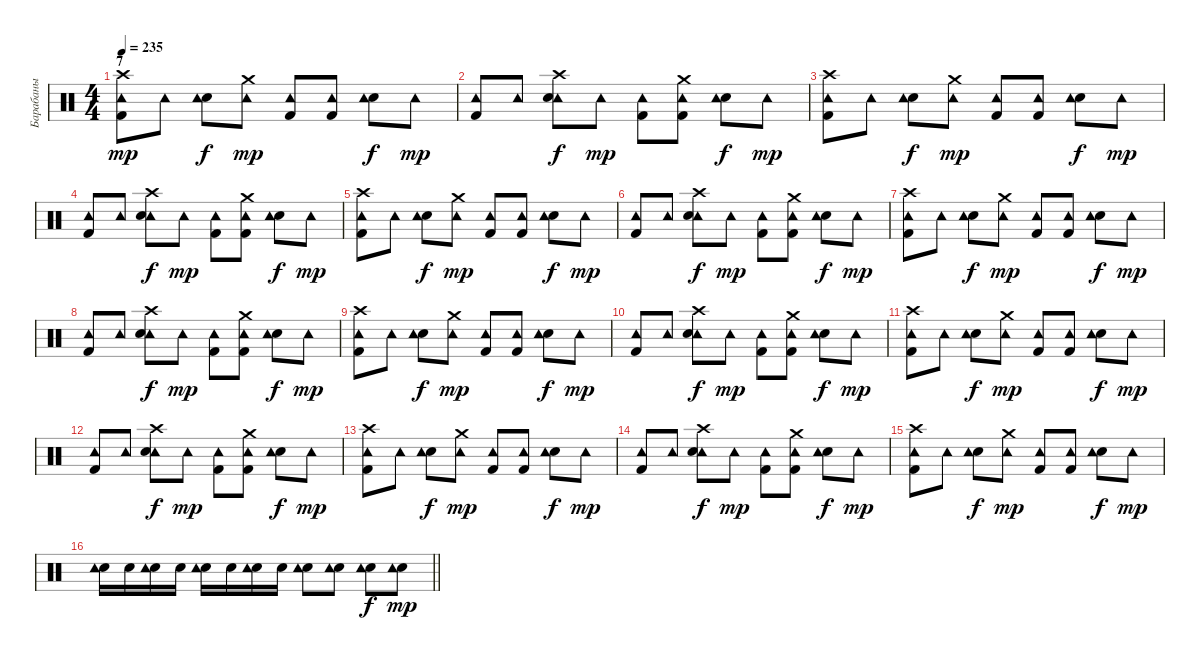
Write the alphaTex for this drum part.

\track ("Барабаны" "Барабаны") {instrument percussion}
\staff {score}
\articulation defaults
\ts (4 4)
\section ("" "7")
\tempo 235
\clef neutral
\ks c
("Crash high (hit)" "Kick (hit) 2" "Tambourine (hit)").8{dy mp} "Tambourine (hit)".8 ("Electric Snare (hit)" "Tambourine (hit)").8{dy f} ("Crash medium (hit)" "Tambourine (hit)").8{dy mp} ("Kick (hit) 2" "Tambourine (hit)").8 ("Kick (hit) 2" "Tambourine (hit)").8 ("Electric Snare (hit)" "Tambourine (hit)").8{dy f} "Tambourine (hit)".8{dy mp} |
("Kick (hit) 2" "Tambourine (hit)").8 "Tambourine (hit)".8 ("Tambourine (hit)" "Electric Snare (hit)" "Crash high (hit)").8{dy f} "Tambourine (hit)".8{dy mp} ("Kick (hit) 2" "Tambourine (hit)").8 ("Tambourine (hit)" "Kick (hit) 2" "Crash medium (hit)").8 ("Electric Snare (hit)" "Tambourine (hit)").8{dy f} "Tambourine (hit)".8{dy mp} |
("Crash high (hit)" "Kick (hit) 2" "Tambourine (hit)").8 "Tambourine (hit)".8 ("Electric Snare (hit)" "Tambourine (hit)").8{dy f} ("Crash medium (hit)" "Tambourine (hit)").8{dy mp} ("Kick (hit) 2" "Tambourine (hit)").8 ("Kick (hit) 2" "Tambourine (hit)").8 ("Electric Snare (hit)" "Tambourine (hit)").8{dy f} "Tambourine (hit)".8{dy mp} |
("Kick (hit) 2" "Tambourine (hit)").8 "Tambourine (hit)".8 ("Tambourine (hit)" "Electric Snare (hit)" "Crash high (hit)").8{dy f} "Tambourine (hit)".8{dy mp} ("Kick (hit) 2" "Tambourine (hit)").8 ("Tambourine (hit)" "Kick (hit) 2" "Crash medium (hit)").8 ("Electric Snare (hit)" "Tambourine (hit)").8{dy f} "Tambourine (hit)".8{dy mp} |
("Crash high (hit)" "Kick (hit) 2" "Tambourine (hit)").8 "Tambourine (hit)".8 ("Electric Snare (hit)" "Tambourine (hit)").8{dy f} ("Crash medium (hit)" "Tambourine (hit)").8{dy mp} ("Kick (hit) 2" "Tambourine (hit)").8 ("Kick (hit) 2" "Tambourine (hit)").8 ("Electric Snare (hit)" "Tambourine (hit)").8{dy f} "Tambourine (hit)".8{dy mp} |
("Kick (hit) 2" "Tambourine (hit)").8 "Tambourine (hit)".8 ("Tambourine (hit)" "Electric Snare (hit)" "Crash high (hit)").8{dy f} "Tambourine (hit)".8{dy mp} ("Kick (hit) 2" "Tambourine (hit)").8 ("Tambourine (hit)" "Kick (hit) 2" "Crash medium (hit)").8 ("Electric Snare (hit)" "Tambourine (hit)").8{dy f} "Tambourine (hit)".8{dy mp} |
("Crash high (hit)" "Kick (hit) 2" "Tambourine (hit)").8 "Tambourine (hit)".8 ("Electric Snare (hit)" "Tambourine (hit)").8{dy f} ("Crash medium (hit)" "Tambourine (hit)").8{dy mp} ("Kick (hit) 2" "Tambourine (hit)").8 ("Kick (hit) 2" "Tambourine (hit)").8 ("Electric Snare (hit)" "Tambourine (hit)").8{dy f} "Tambourine (hit)".8{dy mp} |
("Kick (hit) 2" "Tambourine (hit)").8 "Tambourine (hit)".8 ("Tambourine (hit)" "Electric Snare (hit)" "Crash high (hit)").8{dy f} "Tambourine (hit)".8{dy mp} ("Kick (hit) 2" "Tambourine (hit)").8 ("Tambourine (hit)" "Kick (hit) 2" "Crash medium (hit)").8 ("Electric Snare (hit)" "Tambourine (hit)").8{dy f} "Tambourine (hit)".8{dy mp} |
("Crash high (hit)" "Kick (hit) 2" "Tambourine (hit)").8 "Tambourine (hit)".8 ("Electric Snare (hit)" "Tambourine (hit)").8{dy f} ("Crash medium (hit)" "Tambourine (hit)").8{dy mp} ("Kick (hit) 2" "Tambourine (hit)").8 ("Kick (hit) 2" "Tambourine (hit)").8 ("Electric Snare (hit)" "Tambourine (hit)").8{dy f} "Tambourine (hit)".8{dy mp} |
("Kick (hit) 2" "Tambourine (hit)").8 "Tambourine (hit)".8 ("Tambourine (hit)" "Electric Snare (hit)" "Crash high (hit)").8{dy f} "Tambourine (hit)".8{dy mp} ("Kick (hit) 2" "Tambourine (hit)").8 ("Tambourine (hit)" "Kick (hit) 2" "Crash medium (hit)").8 ("Electric Snare (hit)" "Tambourine (hit)").8{dy f} "Tambourine (hit)".8{dy mp} |
("Crash high (hit)" "Kick (hit) 2" "Tambourine (hit)").8 "Tambourine (hit)".8 ("Electric Snare (hit)" "Tambourine (hit)").8{dy f} ("Crash medium (hit)" "Tambourine (hit)").8{dy mp} ("Kick (hit) 2" "Tambourine (hit)").8 ("Kick (hit) 2" "Tambourine (hit)").8 ("Electric Snare (hit)" "Tambourine (hit)").8{dy f} "Tambourine (hit)".8{dy mp} |
("Kick (hit) 2" "Tambourine (hit)").8 "Tambourine (hit)".8 ("Tambourine (hit)" "Electric Snare (hit)" "Crash high (hit)").8{dy f} "Tambourine (hit)".8{dy mp} ("Kick (hit) 2" "Tambourine (hit)").8 ("Tambourine (hit)" "Kick (hit) 2" "Crash medium (hit)").8 ("Electric Snare (hit)" "Tambourine (hit)").8{dy f} "Tambourine (hit)".8{dy mp} |
("Crash high (hit)" "Kick (hit) 2" "Tambourine (hit)").8 "Tambourine (hit)".8 ("Electric Snare (hit)" "Tambourine (hit)").8{dy f} ("Crash medium (hit)" "Tambourine (hit)").8{dy mp} ("Kick (hit) 2" "Tambourine (hit)").8 ("Kick (hit) 2" "Tambourine (hit)").8 ("Electric Snare (hit)" "Tambourine (hit)").8{dy f} "Tambourine (hit)".8{dy mp} |
("Kick (hit) 2" "Tambourine (hit)").8 "Tambourine (hit)".8 ("Tambourine (hit)" "Electric Snare (hit)" "Crash high (hit)").8{dy f} "Tambourine (hit)".8{dy mp} ("Kick (hit) 2" "Tambourine (hit)").8 ("Tambourine (hit)" "Kick (hit) 2" "Crash medium (hit)").8 ("Electric Snare (hit)" "Tambourine (hit)").8{dy f} "Tambourine (hit)".8{dy mp} |
("Crash high (hit)" "Kick (hit) 2" "Tambourine (hit)").8 "Tambourine (hit)".8 ("Electric Snare (hit)" "Tambourine (hit)").8{dy f} ("Crash medium (hit)" "Tambourine (hit)").8{dy mp} ("Kick (hit) 2" "Tambourine (hit)").8 ("Kick (hit) 2" "Tambourine (hit)").8 ("Electric Snare (hit)" "Tambourine (hit)").8{dy f} "Tambourine (hit)".8{dy mp} |
\barLineRight lightlight
("Electric Snare (hit)" "Tambourine (hit)").16 "Electric Snare (hit)".16 ("Electric Snare (hit)" "Tambourine (hit)").16 "Electric Snare (hit)".16 ("Electric Snare (hit)" "Tambourine (hit)").16 "Electric Snare (hit)".16 ("Electric Snare (hit)" "Tambourine (hit)").16 "Electric Snare (hit)".16 ("Electric Snare (hit)" "Tambourine (hit)").8 ("Electric Snare (hit)" "Tambourine (hit)").8 ("Electric Snare (hit)" "Tambourine (hit)").8{dy f} ("Electric Snare (hit)" "Tambourine (hit)").8{dy mp}
